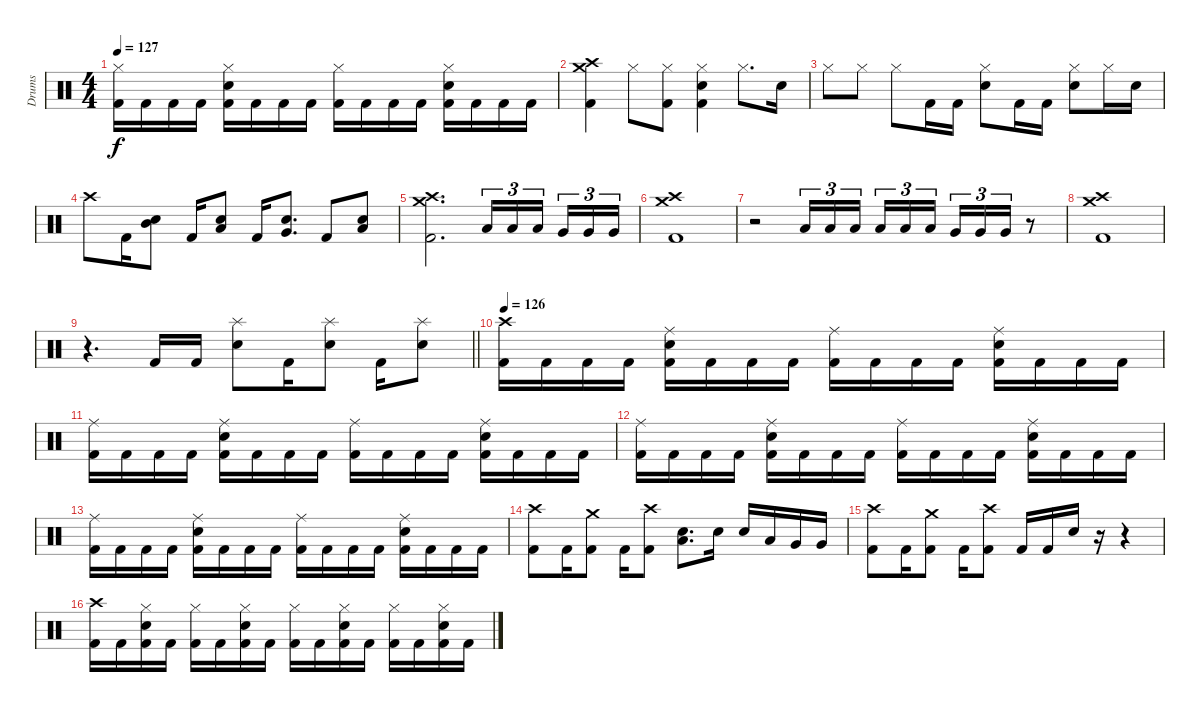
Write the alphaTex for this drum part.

\track ("Drums" "Drums") {instrument percussion}
\staff {score}
\articulation defaults
\ts (4 4)
\tempo 127
\clef neutral
\ks c
("Hi-Hat (closed)" "Kick (hit) 2").16{dy f} "Kick (hit) 2".16 "Kick (hit) 2".16 "Kick (hit) 2".16 ("Hi-Hat (closed)" "Snare (hit) 2" "Kick (hit) 2").16 "Kick (hit) 2".16 "Kick (hit) 2".16 "Kick (hit) 2".16 ("Hi-Hat (closed)" "Kick (hit) 2").16 "Kick (hit) 2".16 "Kick (hit) 2".16 "Kick (hit) 2".16 ("Hi-Hat (closed)" "Snare (hit) 2" "Kick (hit) 2").16 "Kick (hit) 2".16 "Kick (hit) 2".16 "Kick (hit) 2".16 |
("Crash medium (hit)" "Crash high (hit)" "Kick (hit) 2").4 "Hi-Hat (closed)".8 ("Hi-Hat (closed)" "Kick (hit) 2").8 ("Hi-Hat (closed)" "Snare (hit) 2" "Kick (hit) 2").4 "Hi-Hat (closed)".8{d} "Snare (hit) 2".16 |
"Hi-Hat (closed)".8 "Hi-Hat (closed)".8 "Hi-Hat (closed)".8 "Kick (hit) 2".16 "Kick (hit) 2".16 ("Hi-Hat (closed)" "Snare (hit) 2").8 "Kick (hit) 2".16 "Kick (hit) 2".16 ("Hi-Hat (closed)" "Snare (hit) 2").8 "Hi-Hat (closed)".16 "Snare (hit) 2".16 |
"Crash high (hit)".8 "Kick (hit) 2".16 ("Mid Tom (hit)" "Snare (hit) 2").8 "Kick (hit) 2".16 ("Low Tom (hit)" "Snare (hit) 2").8 "Kick (hit) 2".16 ("Very Low Tom (hit)" "Snare (hit) 2").8{d} "Kick (hit) 2".8 ("Low Floor Tom (hit)" "Snare (hit) 2").8 |
("Crash medium (hit)" "Crash high (hit)" "Kick (hit) 2").2{d} "Low Tom (hit)".16{tu (3 2)} "Low Tom (hit)".16{tu (3 2)} "Low Tom (hit)".16{tu (3 2) beam splitsecondary} "Very Low Tom (hit)".16{tu (3 2)} "Very Low Tom (hit)".16{tu (3 2)} "Very Low Tom (hit)".16{tu (3 2)} |
("Crash medium (hit)" "Crash high (hit)" "Kick (hit) 2").1 |
r.2 "Low Tom (hit)".16{tu (3 2)} "Low Tom (hit)".16{tu (3 2)} "Low Tom (hit)".16{tu (3 2) beam splitsecondary} "Low Tom (hit)".16{tu (3 2)} "Low Tom (hit)".16{tu (3 2)} "Low Tom (hit)".16{tu (3 2)} "Very Low Tom (hit)".16{tu (3 2)} "Very Low Tom (hit)".16{tu (3 2)} "Very Low Tom (hit)".16{tu (3 2)} r.8 |
("Crash medium (hit)" "Crash high (hit)" "Kick (hit) 2").1 |
\barLineRight lightlight
r.4{d} "Kick (hit) 2".16 "Kick (hit) 2".16 ("Splash (hit)" "Snare (hit) 2").8 "Kick (hit) 2".16 ("Splash (hit)" "Snare (hit) 2").8 "Kick (hit) 2".16 ("Splash (hit)" "Snare (hit) 2").8 |
\section ("" "")
\tempo 126
("Crash high (hit)" "Kick (hit) 2").16 "Kick (hit) 2".16 "Kick (hit) 2".16 "Kick (hit) 2".16 ("Ride (middle)" "Snare (hit) 2" "Kick (hit) 2").16 "Kick (hit) 2".16 "Kick (hit) 2".16 "Kick (hit) 2".16 ("Ride (middle)" "Kick (hit) 2").16 "Kick (hit) 2".16 "Kick (hit) 2".16 "Kick (hit) 2".16 ("Ride (middle)" "Snare (hit) 2" "Kick (hit) 2").16 "Kick (hit) 2".16 "Kick (hit) 2".16 "Kick (hit) 2".16 |
("Ride (middle)" "Kick (hit) 2").16 "Kick (hit) 2".16 "Kick (hit) 2".16 "Kick (hit) 2".16 ("Ride (middle)" "Snare (hit) 2" "Kick (hit) 2").16 "Kick (hit) 2".16 "Kick (hit) 2".16 "Kick (hit) 2".16 ("Ride (middle)" "Kick (hit) 2").16 "Kick (hit) 2".16 "Kick (hit) 2".16 "Kick (hit) 2".16 ("Ride (middle)" "Snare (hit) 2" "Kick (hit) 2").16 "Kick (hit) 2".16 "Kick (hit) 2".16 "Kick (hit) 2".16 |
("Ride (middle)" "Kick (hit) 2").16 "Kick (hit) 2".16 "Kick (hit) 2".16 "Kick (hit) 2".16 ("Ride (middle)" "Snare (hit) 2" "Kick (hit) 2").16 "Kick (hit) 2".16 "Kick (hit) 2".16 "Kick (hit) 2".16 ("Ride (middle)" "Kick (hit) 2").16 "Kick (hit) 2".16 "Kick (hit) 2".16 "Kick (hit) 2".16 ("Ride (middle)" "Snare (hit) 2" "Kick (hit) 2").16 "Kick (hit) 2".16 "Kick (hit) 2".16 "Kick (hit) 2".16 |
("Ride (middle)" "Kick (hit) 2").16 "Kick (hit) 2".16 "Kick (hit) 2".16 "Kick (hit) 2".16 ("Ride (middle)" "Snare (hit) 2" "Kick (hit) 2").16 "Kick (hit) 2".16 "Kick (hit) 2".16 "Kick (hit) 2".16 ("Ride (middle)" "Kick (hit) 2").16 "Kick (hit) 2".16 "Kick (hit) 2".16 "Kick (hit) 2".16 ("Ride (middle)" "Snare (hit) 2" "Kick (hit) 2").16 "Kick (hit) 2".16 "Kick (hit) 2".16 "Kick (hit) 2".16 |
("Crash high (hit)" "Kick (hit) 2").8 "Kick (hit) 2".16 ("Crash medium (hit)" "Kick (hit) 2").8 "Kick (hit) 2".16 ("Crash high (hit)" "Kick (hit) 2").8 ("Low Floor Tom (hit)" "Snare (hit) 2").8{d} "Snare (hit) 2".16 "Snare (hit) 2".16 "Low Tom (hit)".16 "Very Low Tom (hit)".16 "Very Low Tom (hit)".16 |
("Crash high (hit)" "Kick (hit) 2").8 "Kick (hit) 2".16 ("Crash medium (hit)" "Kick (hit) 2").8 "Kick (hit) 2".16 ("Crash high (hit)" "Kick (hit) 2").8 "Kick (hit) 2".16 "Kick (hit) 2".16 "Snare (hit) 2".16 r.16 r.4 |
("Crash high (hit)" "Kick (hit) 2").16 "Kick (hit) 2".16 ("Hi-Hat (closed)" "Snare (hit) 2" "Kick (hit) 2").16 "Kick (hit) 2".16 ("Hi-Hat (closed)" "Kick (hit) 2").16 "Kick (hit) 2".16 ("Hi-Hat (closed)" "Snare (hit) 2" "Kick (hit) 2").16 "Kick (hit) 2".16 ("Hi-Hat (closed)" "Kick (hit) 2").16 "Kick (hit) 2".16 ("Hi-Hat (closed)" "Snare (hit) 2" "Kick (hit) 2").16 "Kick (hit) 2".16 ("Hi-Hat (closed)" "Kick (hit) 2").16 "Kick (hit) 2".16 ("Hi-Hat (closed)" "Snare (hit) 2" "Kick (hit) 2").16 "Kick (hit) 2".16
